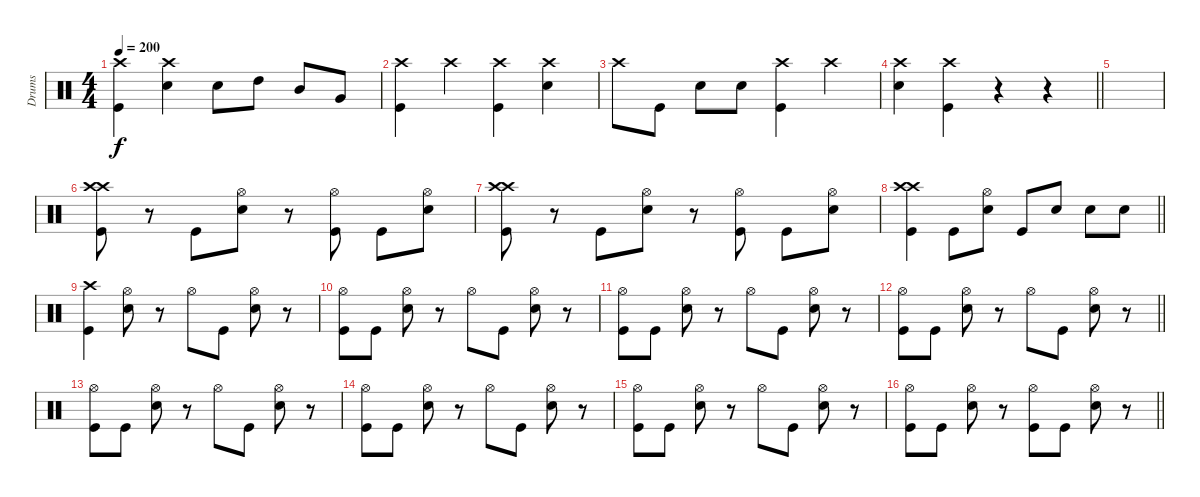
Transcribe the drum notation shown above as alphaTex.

\track ("Drums" "Drums") {instrument percussion}
\staff {score}
\articulation defaults
\ts (4 4)
\tempo 200
\clef neutral
\ks c
("Crash high (hit)" "Kick (hit)").4{dy f} ("Crash high (hit)" "Snare (hit) 2").4 "Snare (hit) 2".8 "High Tom (hit)".8 "Mid Tom (hit)".8 "Very Low Tom (hit)".8 |
("Crash high (hit)" "Kick (hit)").4 "Crash high (hit)".4 ("Crash high (hit)" "Kick (hit)").4 ("Crash high (hit)" "Snare (hit) 2").4 |
"Crash high (hit)".8 "Kick (hit)".8 "Snare (hit) 2".8 "Snare (hit) 2".8 ("Crash high (hit)" "Kick (hit)").4 "Crash high (hit)".4 |
\barLineRight lightlight
("Crash high (hit)" "Snare (hit) 2").4 ("Crash high (hit)" "Kick (hit)").4 r.4 r.4 |
|
("Crash high (hit)" "Crash high (hit)" "Kick (hit)").8 r.8 "Kick (hit)".8 ("Hi-Hat (open)" "Snare (hit) 2").8 r.8 ("Hi-Hat (open)" "Kick (hit)").8 "Kick (hit)".8 ("Hi-Hat (open)" "Snare (hit) 2").8 |
("Crash high (hit)" "Crash high (hit)" "Kick (hit)").8 r.8 "Kick (hit)".8 ("Hi-Hat (open)" "Snare (hit) 2").8 r.8 ("Hi-Hat (open)" "Kick (hit)").8 "Kick (hit)".8 ("Hi-Hat (open)" "Snare (hit) 2").8 |
\barLineRight lightlight
("Crash high (hit)" "Crash high (hit)" "Kick (hit)").4 "Kick (hit)".8 ("Hi-Hat (open)" "Snare (hit) 2").8 "Kick (hit)".8 "Snare (hit) 2".8 "Snare (hit) 2".8 "Snare (hit) 2".8 |
("Crash high (hit)" "Kick (hit)").4 ("Hi-Hat (open)" "Snare (hit) 2").8 r.8 "Hi-Hat (open)".8 "Kick (hit)".8 ("Hi-Hat (open)" "Snare (hit) 2").8 r.8 |
("Hi-Hat (open)" "Kick (hit)").8 "Kick (hit)".8 ("Hi-Hat (open)" "Snare (hit) 2").8 r.8 "Hi-Hat (open)".8 "Kick (hit)".8 ("Hi-Hat (open)" "Snare (hit) 2").8 r.8 |
("Hi-Hat (open)" "Kick (hit)").8 "Kick (hit)".8 ("Hi-Hat (open)" "Snare (hit) 2").8 r.8 "Hi-Hat (open)".8 "Kick (hit)".8 ("Hi-Hat (open)" "Snare (hit) 2").8 r.8 |
\barLineRight lightlight
("Hi-Hat (open)" "Kick (hit)").8 "Kick (hit)".8 ("Hi-Hat (open)" "Snare (hit) 2").8 r.8 "Hi-Hat (open)".8 "Kick (hit)".8 ("Hi-Hat (open)" "Snare (hit) 2").8 r.8 |
("Hi-Hat (open)" "Kick (hit)").8 "Kick (hit)".8 ("Hi-Hat (open)" "Snare (hit) 2").8 r.8 "Hi-Hat (open)".8 "Kick (hit)".8 ("Hi-Hat (open)" "Snare (hit) 2").8 r.8 |
("Hi-Hat (open)" "Kick (hit)").8 "Kick (hit)".8 ("Hi-Hat (open)" "Snare (hit) 2").8 r.8 "Hi-Hat (open)".8 "Kick (hit)".8 ("Hi-Hat (open)" "Snare (hit) 2").8 r.8 |
("Hi-Hat (open)" "Kick (hit)").8 "Kick (hit)".8 ("Hi-Hat (open)" "Snare (hit) 2").8 r.8 "Hi-Hat (open)".8 "Kick (hit)".8 ("Hi-Hat (open)" "Snare (hit) 2").8 r.8 |
\barLineRight lightlight
("Hi-Hat (open)" "Kick (hit)").8 "Kick (hit)".8 ("Hi-Hat (open)" "Snare (hit) 2").8 r.8 ("Hi-Hat (open)" "Kick (hit)").8 "Kick (hit)".8 ("Hi-Hat (open)" "Snare (hit) 2").8 r.8
